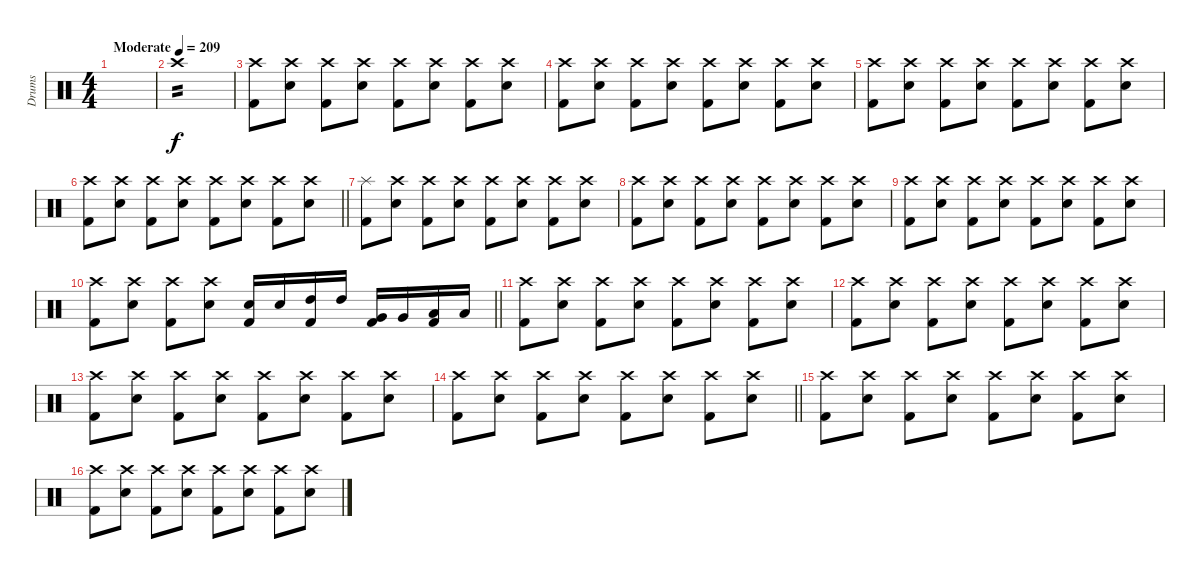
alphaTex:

\track ("Drums" "Drums") {instrument percussion}
\staff {score}
\articulation defaults
\ts (4 4)
\tempo (209 "Moderate")
\clef neutral
\ks c
|
"Crash high (hit)".1{tp 2 volume 13} |
("Crash high (hit)" "Kick (hit) 2").8 ("Crash high (hit)" "Electric Snare (hit)").8 ("Crash high (hit)" "Kick (hit) 2").8 ("Crash high (hit)" "Electric Snare (hit)").8 ("Crash high (hit)" "Kick (hit) 2").8 ("Crash high (hit)" "Electric Snare (hit)").8 ("Crash high (hit)" "Kick (hit) 2").8 ("Crash high (hit)" "Electric Snare (hit)").8 |
("Crash high (hit)" "Kick (hit) 2").8 ("Crash high (hit)" "Electric Snare (hit)").8 ("Crash high (hit)" "Kick (hit) 2").8 ("Crash high (hit)" "Electric Snare (hit)").8 ("Crash high (hit)" "Kick (hit) 2").8 ("Crash high (hit)" "Electric Snare (hit)").8 ("Crash high (hit)" "Kick (hit) 2").8 ("Crash high (hit)" "Electric Snare (hit)").8 |
("Crash high (hit)" "Kick (hit) 2").8 ("Crash high (hit)" "Electric Snare (hit)").8 ("Crash high (hit)" "Kick (hit) 2").8 ("Crash high (hit)" "Electric Snare (hit)").8 ("Crash high (hit)" "Kick (hit) 2").8 ("Crash high (hit)" "Electric Snare (hit)").8 ("Crash high (hit)" "Kick (hit) 2").8 ("Crash high (hit)" "Electric Snare (hit)").8 |
\barLineRight lightlight
("Crash high (hit)" "Kick (hit) 2").8 ("Crash high (hit)" "Electric Snare (hit)").8 ("Crash high (hit)" "Kick (hit) 2").8 ("Crash high (hit)" "Electric Snare (hit)").8 ("Crash high (hit)" "Kick (hit) 2").8 ("Crash high (hit)" "Electric Snare (hit)").8 ("Crash high (hit)" "Kick (hit) 2").8 ("Crash high (hit)" "Electric Snare (hit)").8 |
("Splash (hit)" "Kick (hit) 2").8 ("Crash high (hit)" "Electric Snare (hit)").8 ("Crash high (hit)" "Kick (hit) 2").8 ("Crash high (hit)" "Electric Snare (hit)").8 ("Crash high (hit)" "Kick (hit) 2").8 ("Crash high (hit)" "Electric Snare (hit)").8 ("Crash high (hit)" "Kick (hit) 2").8 ("Crash high (hit)" "Electric Snare (hit)").8 |
("Crash high (hit)" "Kick (hit) 2").8 ("Crash high (hit)" "Electric Snare (hit)").8 ("Crash high (hit)" "Kick (hit) 2").8 ("Crash high (hit)" "Electric Snare (hit)").8 ("Crash high (hit)" "Kick (hit) 2").8 ("Crash high (hit)" "Electric Snare (hit)").8 ("Crash high (hit)" "Kick (hit) 2").8 ("Crash high (hit)" "Electric Snare (hit)").8 |
("Crash high (hit)" "Kick (hit) 2").8 ("Crash high (hit)" "Electric Snare (hit)").8 ("Crash high (hit)" "Kick (hit) 2").8 ("Crash high (hit)" "Electric Snare (hit)").8 ("Crash high (hit)" "Kick (hit) 2").8 ("Crash high (hit)" "Electric Snare (hit)").8 ("Crash high (hit)" "Kick (hit) 2").8 ("Crash high (hit)" "Electric Snare (hit)").8 |
\barLineRight lightlight
("Crash high (hit)" "Kick (hit) 2").8 ("Crash high (hit)" "Electric Snare (hit)").8 ("Crash high (hit)" "Kick (hit) 2").8 ("Crash high (hit)" "Electric Snare (hit)").8 ("Electric Snare (hit)" "Kick (hit) 2").16 "Electric Snare (hit)".16 ("High Tom (hit)" "Kick (hit) 2").16 "High Tom (hit)".16 ("Very Low Tom (hit)" "Kick (hit) 2").16 "Very Low Tom (hit)".16 ("Low Floor Tom (hit)" "Kick (hit) 2").16 "Low Floor Tom (hit)".16 |
("Crash high (hit)" "Kick (hit) 2").8 ("Crash high (hit)" "Electric Snare (hit)").8 ("Crash high (hit)" "Kick (hit) 2").8 ("Crash high (hit)" "Electric Snare (hit)").8 ("Crash high (hit)" "Kick (hit) 2").8 ("Crash high (hit)" "Electric Snare (hit)").8 ("Crash high (hit)" "Kick (hit) 2").8 ("Crash high (hit)" "Electric Snare (hit)").8 |
("Crash high (hit)" "Kick (hit) 2").8 ("Crash high (hit)" "Electric Snare (hit)").8 ("Crash high (hit)" "Kick (hit) 2").8 ("Crash high (hit)" "Electric Snare (hit)").8 ("Crash high (hit)" "Kick (hit) 2").8 ("Crash high (hit)" "Electric Snare (hit)").8 ("Crash high (hit)" "Kick (hit) 2").8 ("Crash high (hit)" "Electric Snare (hit)").8 |
("Crash high (hit)" "Kick (hit) 2").8 ("Crash high (hit)" "Electric Snare (hit)").8 ("Crash high (hit)" "Kick (hit) 2").8 ("Crash high (hit)" "Electric Snare (hit)").8 ("Crash high (hit)" "Kick (hit) 2").8 ("Crash high (hit)" "Electric Snare (hit)").8 ("Crash high (hit)" "Kick (hit) 2").8 ("Crash high (hit)" "Electric Snare (hit)").8 |
\barLineRight lightlight
("Crash high (hit)" "Kick (hit) 2").8 ("Crash high (hit)" "Electric Snare (hit)").8 ("Crash high (hit)" "Kick (hit) 2").8 ("Crash high (hit)" "Electric Snare (hit)").8 ("Crash high (hit)" "Kick (hit) 2").8 ("Crash high (hit)" "Electric Snare (hit)").8 ("Crash high (hit)" "Kick (hit) 2").8 ("Crash high (hit)" "Electric Snare (hit)").8 |
("Crash high (hit)" "Kick (hit) 2").8 ("Crash high (hit)" "Electric Snare (hit)").8 ("Crash high (hit)" "Kick (hit) 2").8 ("Crash high (hit)" "Electric Snare (hit)").8 ("Crash high (hit)" "Kick (hit) 2").8 ("Crash high (hit)" "Electric Snare (hit)").8 ("Crash high (hit)" "Kick (hit) 2").8 ("Crash high (hit)" "Electric Snare (hit)").8 |
("Crash high (hit)" "Kick (hit) 2").8 ("Crash high (hit)" "Electric Snare (hit)").8 ("Crash high (hit)" "Kick (hit) 2").8 ("Crash high (hit)" "Electric Snare (hit)").8 ("Crash high (hit)" "Kick (hit) 2").8 ("Crash high (hit)" "Electric Snare (hit)").8 ("Crash high (hit)" "Kick (hit) 2").8 ("Crash high (hit)" "Electric Snare (hit)").8
